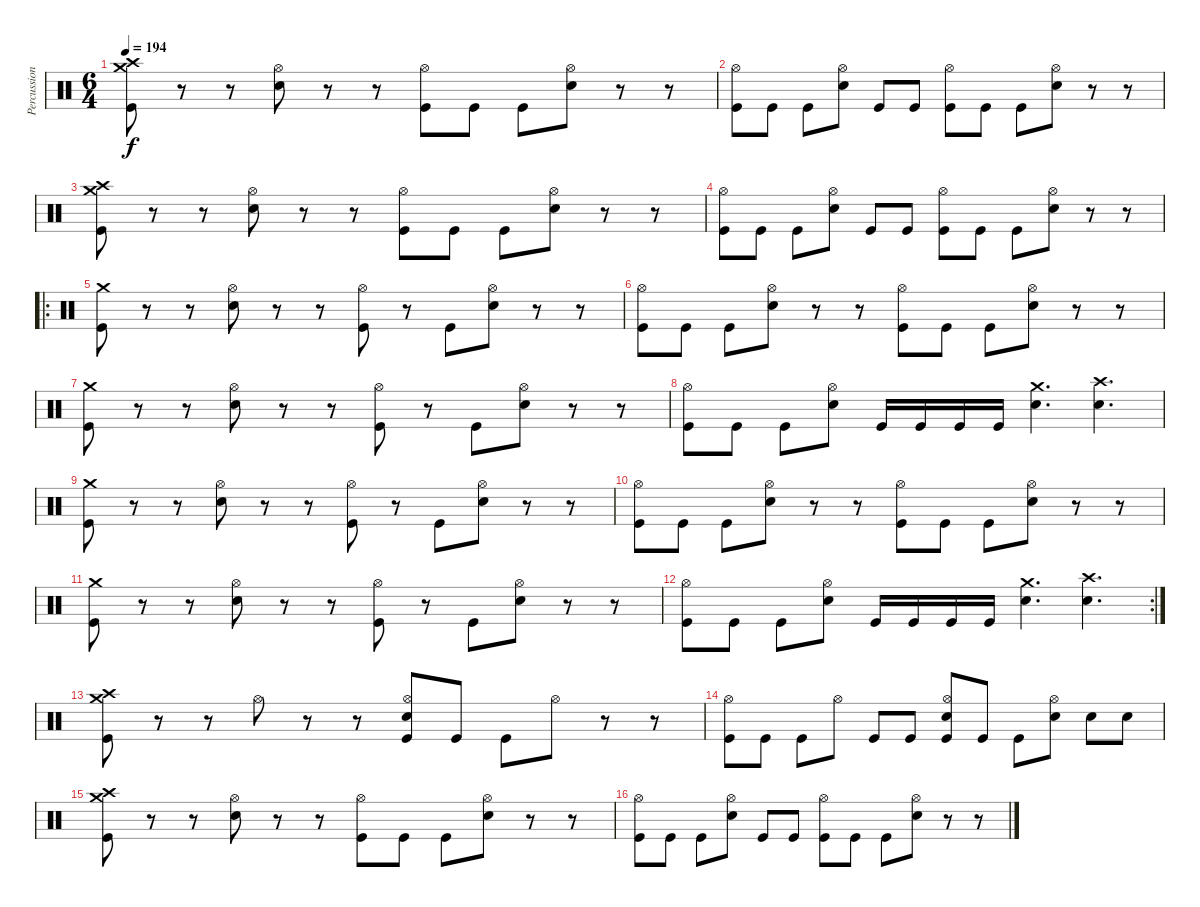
\track ("Percussion" "Percussion") {instrument percussion}
\staff {score}
\articulation defaults
\ts (6 4)
\tempo 194
\clef neutral
\ks c
("Crash medium (hit)" "Crash high (hit)" "Kick (hit)").8{dy f} r.8 r.8 ("Hi-Hat (open)" "Electric Snare (hit)").8 r.8 r.8 ("Hi-Hat (open)" "Kick (hit)").8 "Kick (hit)".8 "Kick (hit)".8 ("Hi-Hat (open)" "Electric Snare (hit)").8 r.8 r.8 |
("Hi-Hat (open)" "Kick (hit)").8 "Kick (hit)".8 "Kick (hit)".8 ("Hi-Hat (open)" "Electric Snare (hit)").8 "Kick (hit)".8 "Kick (hit)".8 ("Hi-Hat (open)" "Kick (hit)").8 "Kick (hit)".8 "Kick (hit)".8 ("Hi-Hat (open)" "Electric Snare (hit)").8 r.8 r.8 |
("Crash medium (hit)" "Crash high (hit)" "Kick (hit)").8 r.8 r.8 ("Hi-Hat (open)" "Electric Snare (hit)").8 r.8 r.8 ("Hi-Hat (open)" "Kick (hit)").8 "Kick (hit)".8 "Kick (hit)".8 ("Hi-Hat (open)" "Electric Snare (hit)").8 r.8 r.8 |
("Hi-Hat (open)" "Kick (hit)").8 "Kick (hit)".8 "Kick (hit)".8 ("Hi-Hat (open)" "Electric Snare (hit)").8 "Kick (hit)".8 "Kick (hit)".8 ("Hi-Hat (open)" "Kick (hit)").8 "Kick (hit)".8 "Kick (hit)".8 ("Hi-Hat (open)" "Electric Snare (hit)").8 r.8 r.8 |
\ro
("Crash medium (hit)" "Kick (hit)").8 r.8 r.8 ("Hi-Hat (open)" "Electric Snare (hit)").8 r.8 r.8 ("Hi-Hat (open)" "Kick (hit)").8 r.8 "Kick (hit)".8 ("Hi-Hat (open)" "Electric Snare (hit)").8 r.8 r.8 |
("Hi-Hat (open)" "Kick (hit)").8 "Kick (hit)".8 "Kick (hit)".8 ("Hi-Hat (open)" "Electric Snare (hit)").8 r.8 r.8 ("Hi-Hat (open)" "Kick (hit)").8 "Kick (hit)".8 "Kick (hit)".8 ("Hi-Hat (open)" "Electric Snare (hit)").8 r.8 r.8 |
("Crash medium (hit)" "Kick (hit)").8 r.8 r.8 ("Hi-Hat (open)" "Electric Snare (hit)").8 r.8 r.8 ("Hi-Hat (open)" "Kick (hit)").8 r.8 "Kick (hit)".8 ("Hi-Hat (open)" "Electric Snare (hit)").8 r.8 r.8 |
("Hi-Hat (open)" "Kick (hit)").8 "Kick (hit)".8 "Kick (hit)".8 ("Hi-Hat (open)" "Electric Snare (hit)").8 "Kick (hit)".16 "Kick (hit)".16 "Kick (hit)".16 "Kick (hit)".16 ("Crash medium (hit)" "Electric Snare (hit)").4{d} ("Crash high (hit)" "Electric Snare (hit)").4{d} |
("Crash medium (hit)" "Kick (hit)").8 r.8 r.8 ("Hi-Hat (open)" "Electric Snare (hit)").8 r.8 r.8 ("Hi-Hat (open)" "Kick (hit)").8 r.8 "Kick (hit)".8 ("Hi-Hat (open)" "Electric Snare (hit)").8 r.8 r.8 |
("Hi-Hat (open)" "Kick (hit)").8 "Kick (hit)".8 "Kick (hit)".8 ("Hi-Hat (open)" "Electric Snare (hit)").8 r.8 r.8 ("Hi-Hat (open)" "Kick (hit)").8 "Kick (hit)".8 "Kick (hit)".8 ("Hi-Hat (open)" "Electric Snare (hit)").8 r.8 r.8 |
("Crash medium (hit)" "Kick (hit)").8 r.8 r.8 ("Hi-Hat (open)" "Electric Snare (hit)").8 r.8 r.8 ("Hi-Hat (open)" "Kick (hit)").8 r.8 "Kick (hit)".8 ("Hi-Hat (open)" "Electric Snare (hit)").8 r.8 r.8 |
\rc 2
("Hi-Hat (open)" "Kick (hit)").8 "Kick (hit)".8 "Kick (hit)".8 ("Hi-Hat (open)" "Electric Snare (hit)").8 "Kick (hit)".16 "Kick (hit)".16 "Kick (hit)".16 "Kick (hit)".16 ("Crash medium (hit)" "Electric Snare (hit)").4{d} ("Crash high (hit)" "Electric Snare (hit)").4{d} |
("Crash medium (hit)" "Crash high (hit)" "Kick (hit)").8 r.8 r.8 "Hi-Hat (open)".8 r.8 r.8 ("Hi-Hat (open)" "Electric Snare (hit)" "Kick (hit)").8 "Kick (hit)".8 "Kick (hit)".8 "Hi-Hat (open)".8 r.8 r.8 |
("Hi-Hat (open)" "Kick (hit)").8 "Kick (hit)".8 "Kick (hit)".8 "Hi-Hat (open)".8 "Kick (hit)".8 "Kick (hit)".8 ("Hi-Hat (open)" "Electric Snare (hit)" "Kick (hit)").8 "Kick (hit)".8 "Kick (hit)".8 ("Hi-Hat (open)" "Electric Snare (hit)").8 "Electric Snare (hit)".8 "Electric Snare (hit)".8 |
("Crash medium (hit)" "Crash high (hit)" "Kick (hit)").8 r.8 r.8 ("Hi-Hat (open)" "Electric Snare (hit)").8 r.8 r.8 ("Hi-Hat (open)" "Kick (hit)").8 "Kick (hit)".8 "Kick (hit)".8 ("Hi-Hat (open)" "Electric Snare (hit)").8 r.8 r.8 |
("Hi-Hat (open)" "Kick (hit)").8 "Kick (hit)".8 "Kick (hit)".8 ("Hi-Hat (open)" "Electric Snare (hit)").8 "Kick (hit)".8 "Kick (hit)".8 ("Hi-Hat (open)" "Kick (hit)").8 "Kick (hit)".8 "Kick (hit)".8 ("Hi-Hat (open)" "Electric Snare (hit)").8 r.8 r.8
